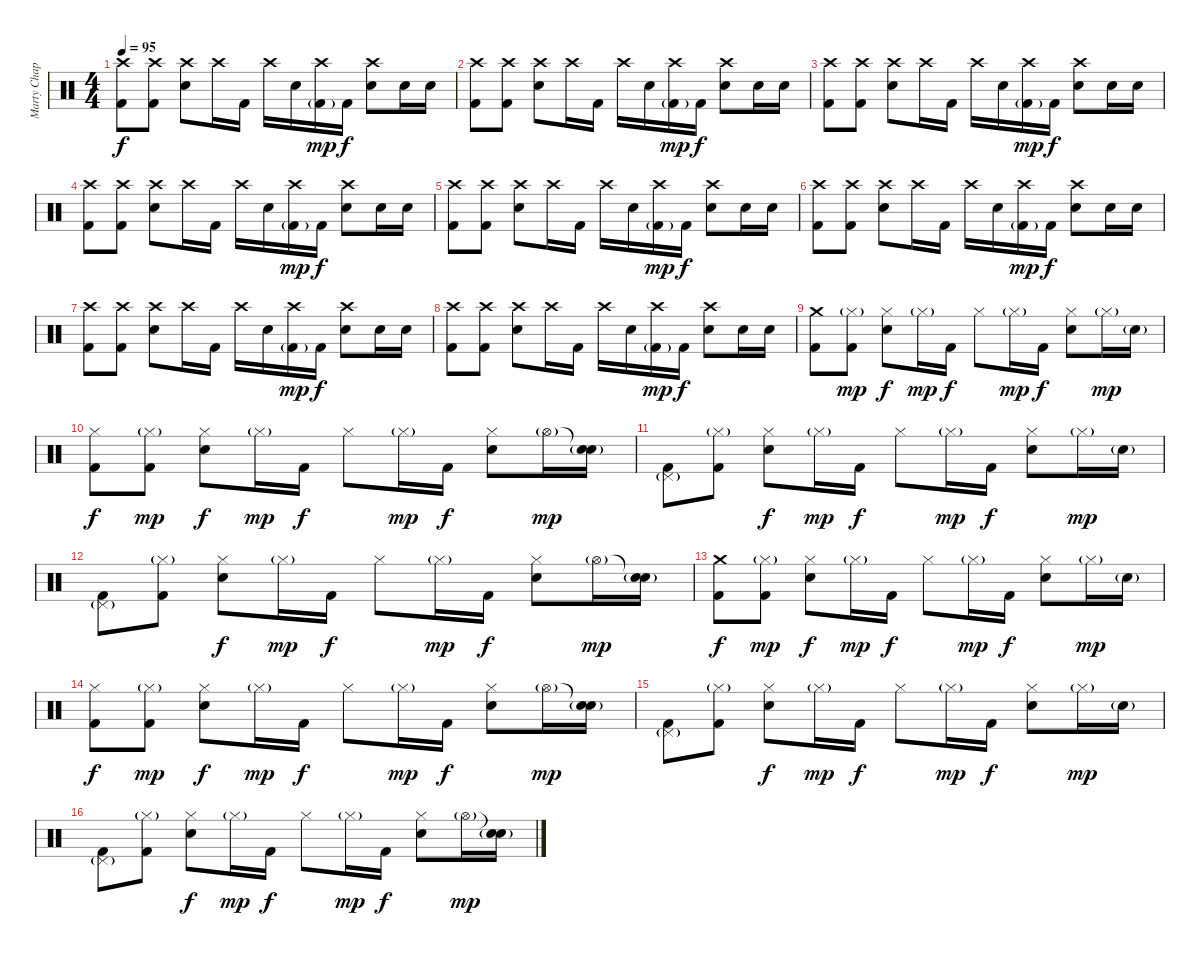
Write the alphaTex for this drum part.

\track ("Marty Chapman (Drums)" "Marty Chap") {instrument percussion}
\staff {score}
\articulation defaults
\ts (4 4)
\tempo 95
\clef neutral
\ks c
("Crash high (hit)" "Kick (hit) 2").8{dy f} ("Crash high (hit)" "Kick (hit) 2").8 ("Crash high (hit)" "Electric Snare (hit)").8 "Crash high (hit)".16 "Kick (hit) 2".16 "Crash high (hit)".16 "Electric Snare (hit)".16 ("Crash high (hit)" "Kick (hit) 2"{g}).16{dy mp} "Kick (hit) 2".16{dy f} ("Crash high (hit)" "Electric Snare (hit)").8 "Electric Snare (hit)".16 "Electric Snare (hit)".16 |
("Crash high (hit)" "Kick (hit) 2").8 ("Crash high (hit)" "Kick (hit) 2").8 ("Crash high (hit)" "Electric Snare (hit)").8 "Crash high (hit)".16 "Kick (hit) 2".16 "Crash high (hit)".16 "Electric Snare (hit)".16 ("Crash high (hit)" "Kick (hit) 2"{g}).16{dy mp} "Kick (hit) 2".16{dy f} ("Crash high (hit)" "Electric Snare (hit)").8 "Electric Snare (hit)".16 "Electric Snare (hit)".16 |
("Crash high (hit)" "Kick (hit) 2").8 ("Crash high (hit)" "Kick (hit) 2").8 ("Crash high (hit)" "Electric Snare (hit)").8 "Crash high (hit)".16 "Kick (hit) 2".16 "Crash high (hit)".16 "Electric Snare (hit)".16 ("Crash high (hit)" "Kick (hit) 2"{g}).16{dy mp} "Kick (hit) 2".16{dy f} ("Crash high (hit)" "Electric Snare (hit)").8 "Electric Snare (hit)".16 "Electric Snare (hit)".16 |
("Crash high (hit)" "Kick (hit) 2").8 ("Crash high (hit)" "Kick (hit) 2").8 ("Crash high (hit)" "Electric Snare (hit)").8 "Crash high (hit)".16 "Kick (hit) 2".16 "Crash high (hit)".16 "Electric Snare (hit)".16 ("Crash high (hit)" "Kick (hit) 2"{g}).16{dy mp} "Kick (hit) 2".16{dy f} ("Crash high (hit)" "Electric Snare (hit)").8 "Electric Snare (hit)".16 "Electric Snare (hit)".16 |
("Crash high (hit)" "Kick (hit) 2").8 ("Crash high (hit)" "Kick (hit) 2").8 ("Crash high (hit)" "Electric Snare (hit)").8 "Crash high (hit)".16 "Kick (hit) 2".16 "Crash high (hit)".16 "Electric Snare (hit)".16 ("Crash high (hit)" "Kick (hit) 2"{g}).16{dy mp} "Kick (hit) 2".16{dy f} ("Crash high (hit)" "Electric Snare (hit)").8 "Electric Snare (hit)".16 "Electric Snare (hit)".16 |
("Crash high (hit)" "Kick (hit) 2").8 ("Crash high (hit)" "Kick (hit) 2").8 ("Crash high (hit)" "Electric Snare (hit)").8 "Crash high (hit)".16 "Kick (hit) 2".16 "Crash high (hit)".16 "Electric Snare (hit)".16 ("Crash high (hit)" "Kick (hit) 2"{g}).16{dy mp} "Kick (hit) 2".16{dy f} ("Crash high (hit)" "Electric Snare (hit)").8 "Electric Snare (hit)".16 "Electric Snare (hit)".16 |
("Crash high (hit)" "Kick (hit) 2").8 ("Crash high (hit)" "Kick (hit) 2").8 ("Crash high (hit)" "Electric Snare (hit)").8 "Crash high (hit)".16 "Kick (hit) 2".16 "Crash high (hit)".16 "Electric Snare (hit)".16 ("Crash high (hit)" "Kick (hit) 2"{g}).16{dy mp} "Kick (hit) 2".16{dy f} ("Crash high (hit)" "Electric Snare (hit)").8 "Electric Snare (hit)".16 "Electric Snare (hit)".16 |
("Crash high (hit)" "Kick (hit) 2").8 ("Crash high (hit)" "Kick (hit) 2").8 ("Crash high (hit)" "Electric Snare (hit)").8 "Crash high (hit)".16 "Kick (hit) 2".16 "Crash high (hit)".16 "Electric Snare (hit)".16 ("Crash high (hit)" "Kick (hit) 2"{g}).16{dy mp} "Kick (hit) 2".16{dy f} ("Crash high (hit)" "Electric Snare (hit)").8 "Electric Snare (hit)".16 "Electric Snare (hit)".16 |
("Crash medium (hit)" "Kick (hit) 2").8 ("Hi-Hat (closed)"{g} "Kick (hit) 2").8{dy mp} ("Hi-Hat (closed)" "Electric Snare (hit)").8{dy f} "Hi-Hat (closed)"{g}.16{dy mp} "Kick (hit) 2".16{dy f} "Hi-Hat (closed)".8 "Hi-Hat (closed)"{g}.16{dy mp} "Kick (hit) 2".16{dy f} ("Hi-Hat (closed)" "Electric Snare (hit)").8 "Hi-Hat (closed)"{g}.16{dy mp} "Electric Snare (hit)"{g}.16 |
("Hi-Hat (closed)" "Kick (hit) 2").8{dy f} ("Hi-Hat (closed)"{g} "Kick (hit) 2").8{dy mp} ("Hi-Hat (closed)" "Electric Snare (hit)").8{dy f} "Hi-Hat (closed)"{g}.16{dy mp} "Kick (hit) 2".16{dy f} "Hi-Hat (closed)".8 "Hi-Hat (closed)"{g}.16{dy mp} "Kick (hit) 2".16{dy f} ("Hi-Hat (closed)" "Electric Snare (hit)").8 "Hi-Hat (open)"{g}.16{dy mp} ("Snare (hit)"{t} "Electric Snare (hit)"{g}).16 |
("Pedal Hi-Hat (hit)"{g} "Kick (hit) 2").8 ("Hi-Hat (closed)"{g} "Kick (hit) 2").8 ("Hi-Hat (closed)" "Electric Snare (hit)").8{dy f} "Hi-Hat (closed)"{g}.16{dy mp} "Kick (hit) 2".16{dy f} "Hi-Hat (closed)".8 "Hi-Hat (closed)"{g}.16{dy mp} "Kick (hit) 2".16{dy f} ("Hi-Hat (closed)" "Electric Snare (hit)").8 "Hi-Hat (closed)"{g}.16{dy mp} "Electric Snare (hit)"{g}.16 |
("Pedal Hi-Hat (hit)"{g} "Kick (hit) 2").8 ("Hi-Hat (closed)"{g} "Kick (hit) 2").8 ("Hi-Hat (closed)" "Electric Snare (hit)").8{dy f} "Hi-Hat (closed)"{g}.16{dy mp} "Kick (hit) 2".16{dy f} "Hi-Hat (closed)".8 "Hi-Hat (closed)"{g}.16{dy mp} "Kick (hit) 2".16{dy f} ("Hi-Hat (closed)" "Electric Snare (hit)").8 "Hi-Hat (open)"{g}.16{dy mp} ("Snare (hit)"{t} "Electric Snare (hit)"{g}).16 |
("Crash medium (hit)" "Kick (hit) 2").8{dy f} ("Hi-Hat (closed)"{g} "Kick (hit) 2").8{dy mp} ("Hi-Hat (closed)" "Electric Snare (hit)").8{dy f} "Hi-Hat (closed)"{g}.16{dy mp} "Kick (hit) 2".16{dy f} "Hi-Hat (closed)".8 "Hi-Hat (closed)"{g}.16{dy mp} "Kick (hit) 2".16{dy f} ("Hi-Hat (closed)" "Electric Snare (hit)").8 "Hi-Hat (closed)"{g}.16{dy mp} "Electric Snare (hit)"{g}.16 |
("Hi-Hat (closed)" "Kick (hit) 2").8{dy f} ("Hi-Hat (closed)"{g} "Kick (hit) 2").8{dy mp} ("Hi-Hat (closed)" "Electric Snare (hit)").8{dy f} "Hi-Hat (closed)"{g}.16{dy mp} "Kick (hit) 2".16{dy f} "Hi-Hat (closed)".8 "Hi-Hat (closed)"{g}.16{dy mp} "Kick (hit) 2".16{dy f} ("Hi-Hat (closed)" "Electric Snare (hit)").8 "Hi-Hat (open)"{g}.16{dy mp} ("Snare (hit)"{t} "Electric Snare (hit)"{g}).16 |
("Pedal Hi-Hat (hit)"{g} "Kick (hit) 2").8 ("Hi-Hat (closed)"{g} "Kick (hit) 2").8 ("Hi-Hat (closed)" "Electric Snare (hit)").8{dy f} "Hi-Hat (closed)"{g}.16{dy mp} "Kick (hit) 2".16{dy f} "Hi-Hat (closed)".8 "Hi-Hat (closed)"{g}.16{dy mp} "Kick (hit) 2".16{dy f} ("Hi-Hat (closed)" "Electric Snare (hit)").8 "Hi-Hat (closed)"{g}.16{dy mp} "Electric Snare (hit)"{g}.16 |
("Pedal Hi-Hat (hit)"{g} "Kick (hit) 2").8 ("Hi-Hat (closed)"{g} "Kick (hit) 2").8 ("Hi-Hat (closed)" "Electric Snare (hit)").8{dy f} "Hi-Hat (closed)"{g}.16{dy mp} "Kick (hit) 2".16{dy f} "Hi-Hat (closed)".8 "Hi-Hat (closed)"{g}.16{dy mp} "Kick (hit) 2".16{dy f} ("Hi-Hat (closed)" "Electric Snare (hit)").8 "Hi-Hat (open)"{g}.16{dy mp} ("Snare (hit)"{t} "Electric Snare (hit)"{g}).16
